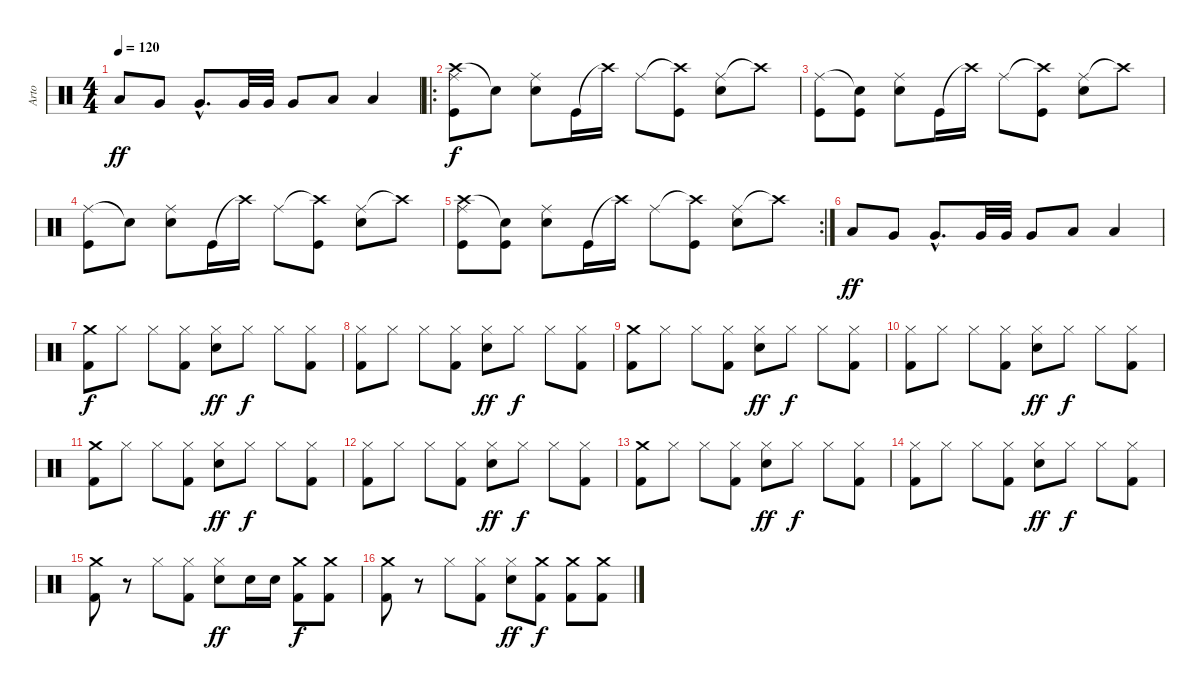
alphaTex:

\track ("Arto" "Arto") {instrument percussion}
\staff {score}
\articulation defaults
\ts (4 4)
\tempo 120
\clef neutral
\ks c "Low Tom (hit)".8{dy ff} "Very Low Tom (hit)".8 "Very Low Tom (hit)"{hac}.8{d} "Very Low Tom (hit)".32 "Very Low Tom (hit)".32 "Very Low Tom (hit)".8 "Low Floor Tom (hit)".8 "Low Floor Tom (hit)".4
|
\ro
("Crash high (hit)" "Ride (middle)" "Kick (hit)").8{dy f} "Snare (hit)"{t}.8 ("Ride (middle)" "Snare (hit) 2").8 "Kick (hit)".16 "Crash high (hit)"{t}.16 "Ride (middle)".8 ("Crash high (hit)"{t} "Kick (hit)").8 ("Ride (middle)" "Snare (hit) 2").8 "Crash high (hit)"{t}.8 |
("Ride (middle)" "Kick (hit)").8 ("Snare (hit)"{t} "Kick (hit)").8 ("Ride (middle)" "Snare (hit) 2").8 "Kick (hit)".16 "Crash high (hit)"{t}.16 "Ride (middle)".8 ("Crash high (hit)"{t} "Kick (hit)").8 ("Ride (middle)" "Snare (hit) 2").8 "Crash high (hit)"{t}.8 |
("Ride (middle)" "Kick (hit)").8 "Snare (hit)"{t}.8 ("Ride (middle)" "Snare (hit) 2").8 "Kick (hit)".16 "Crash high (hit)"{t}.16 "Ride (middle)".8 ("Crash high (hit)"{t} "Kick (hit)").8 ("Ride (middle)" "Snare (hit) 2").8 "Crash high (hit)"{t}.8 |
\rc 2
("Crash high (hit)" "Ride (middle)" "Kick (hit)").8 ("Snare (hit)"{t} "Kick (hit)").8 ("Ride (middle)" "Snare (hit) 2").8 "Kick (hit)".16 "Crash high (hit)"{t}.16 "Ride (middle)".8 ("Crash high (hit)"{t} "Kick (hit)").8 ("Ride (middle)" "Snare (hit) 2").8 "Crash high (hit)"{t}.8 |
"Low Tom (hit)".8{dy ff} "Very Low Tom (hit)".8 "Very Low Tom (hit)"{hac}.8{d} "Very Low Tom (hit)".32 "Very Low Tom (hit)".32 "Very Low Tom (hit)".8 "Low Floor Tom (hit)".8 "Low Floor Tom (hit)".4 |
("Crash medium (hit)" "Kick (hit) 2").8{dy f} "Hi-Hat (closed)".8 "Hi-Hat (closed)".8 ("Hi-Hat (closed)" "Kick (hit) 2").8 ("Hi-Hat (closed)" "Snare (hit) 2").8{dy ff} "Hi-Hat (closed)".8{dy f} "Hi-Hat (closed)".8 ("Hi-Hat (closed)" "Kick (hit) 2").8 |
("Hi-Hat (closed)" "Kick (hit) 2").8 "Hi-Hat (closed)".8 "Hi-Hat (closed)".8 ("Hi-Hat (closed)" "Kick (hit) 2").8 ("Hi-Hat (closed)" "Snare (hit) 2").8{dy ff} "Hi-Hat (closed)".8{dy f} "Hi-Hat (closed)".8 ("Hi-Hat (closed)" "Kick (hit) 2").8 |
("Crash medium (hit)" "Kick (hit) 2").8 "Hi-Hat (closed)".8 "Hi-Hat (closed)".8 ("Hi-Hat (closed)" "Kick (hit) 2").8 ("Hi-Hat (closed)" "Snare (hit) 2").8{dy ff} "Hi-Hat (closed)".8{dy f} "Hi-Hat (closed)".8 ("Hi-Hat (closed)" "Kick (hit) 2").8 |
("Hi-Hat (closed)" "Kick (hit) 2").8 "Hi-Hat (closed)".8 "Hi-Hat (closed)".8 ("Hi-Hat (closed)" "Kick (hit) 2").8 ("Hi-Hat (closed)" "Snare (hit) 2").8{dy ff} "Hi-Hat (closed)".8{dy f} "Hi-Hat (closed)".8 ("Hi-Hat (closed)" "Kick (hit) 2").8 |
("Crash medium (hit)" "Kick (hit) 2").8 "Hi-Hat (closed)".8 "Hi-Hat (closed)".8 ("Hi-Hat (closed)" "Kick (hit) 2").8 ("Hi-Hat (closed)" "Snare (hit) 2").8{dy ff} "Hi-Hat (closed)".8{dy f} "Hi-Hat (closed)".8 ("Hi-Hat (closed)" "Kick (hit) 2").8 |
("Hi-Hat (closed)" "Kick (hit) 2").8 "Hi-Hat (closed)".8 "Hi-Hat (closed)".8 ("Hi-Hat (closed)" "Kick (hit) 2").8 ("Hi-Hat (closed)" "Snare (hit) 2").8{dy ff} "Hi-Hat (closed)".8{dy f} "Hi-Hat (closed)".8 ("Hi-Hat (closed)" "Kick (hit) 2").8 |
("Crash medium (hit)" "Kick (hit) 2").8 "Hi-Hat (closed)".8 "Hi-Hat (closed)".8 ("Hi-Hat (closed)" "Kick (hit) 2").8 ("Hi-Hat (closed)" "Snare (hit) 2").8{dy ff} "Hi-Hat (closed)".8{dy f} "Hi-Hat (closed)".8 ("Hi-Hat (closed)" "Kick (hit) 2").8 |
("Hi-Hat (closed)" "Kick (hit) 2").8 "Hi-Hat (closed)".8 "Hi-Hat (closed)".8 ("Hi-Hat (closed)" "Kick (hit) 2").8 ("Hi-Hat (closed)" "Snare (hit) 2").8{dy ff} "Hi-Hat (closed)".8{dy f} "Hi-Hat (closed)".8 ("Hi-Hat (closed)" "Kick (hit) 2").8 |
("Crash medium (hit)" "Kick (hit) 2").8 r.8 "Hi-Hat (closed)".8 ("Hi-Hat (closed)" "Kick (hit) 2").8 ("Hi-Hat (closed)" "Snare (hit) 2").8{dy ff} "Snare (hit) 2".16 "Snare (hit) 2".16 ("Crash medium (hit)" "Kick (hit) 2").8{dy f} ("Crash medium (hit)" "Kick (hit) 2").8 |
("Crash medium (hit)" "Kick (hit) 2").8 r.8 "Hi-Hat (closed)".8 ("Hi-Hat (closed)" "Kick (hit) 2").8 ("Hi-Hat (closed)" "Snare (hit) 2").8{dy ff} ("Crash medium (hit)" "Kick (hit) 2").8{dy f} ("Crash medium (hit)" "Kick (hit) 2").8 ("Crash medium (hit)" "Kick (hit) 2").8
